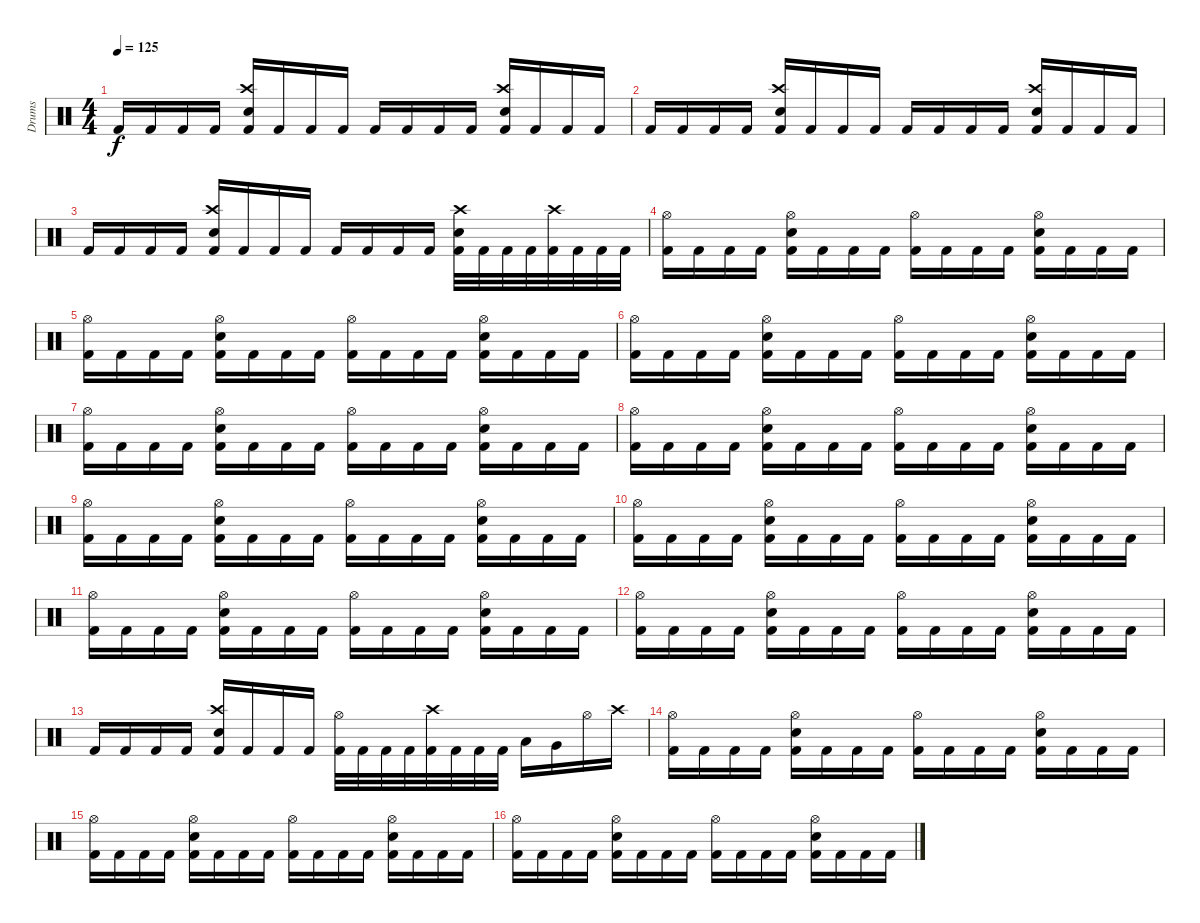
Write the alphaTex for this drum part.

\track ("Drums" "Drums") {instrument percussion}
\staff {score}
\articulation defaults
\ts (4 4)
\tempo 125
\clef neutral
\ks c "Kick (hit) 2".16{dy f} "Kick (hit) 2".16 "Kick (hit) 2".16 "Kick (hit) 2".16
("Crash high (hit)" "Kick (hit) 2" "Snare (hit) 2").16 "Kick (hit) 2".16 "Kick (hit) 2".16 "Kick (hit) 2".16 "Kick (hit) 2".16 "Kick (hit) 2".16 "Kick (hit) 2".16 "Kick (hit) 2".16 ("Crash high (hit)" "Kick (hit) 2" "Snare (hit) 2").16 "Kick (hit) 2".16 "Kick (hit) 2".16 "Kick (hit) 2".16 |
"Kick (hit) 2".16 "Kick (hit) 2".16 "Kick (hit) 2".16 "Kick (hit) 2".16 ("Crash high (hit)" "Kick (hit) 2" "Snare (hit) 2").16 "Kick (hit) 2".16 "Kick (hit) 2".16 "Kick (hit) 2".16 "Kick (hit) 2".16 "Kick (hit) 2".16 "Kick (hit) 2".16 "Kick (hit) 2".16 ("Crash high (hit)" "Kick (hit) 2" "Snare (hit) 2").16 "Kick (hit) 2".16 "Kick (hit) 2".16 "Kick (hit) 2".16 |
"Kick (hit) 2".16 "Kick (hit) 2".16 "Kick (hit) 2".16 "Kick (hit) 2".16 ("Crash high (hit)" "Kick (hit) 2" "Snare (hit) 2").16 "Kick (hit) 2".16 "Kick (hit) 2".16 "Kick (hit) 2".16 "Kick (hit) 2".16 "Kick (hit) 2".16 "Kick (hit) 2".16 "Kick (hit) 2".16 ("Crash high (hit)" "Kick (hit) 2" "Snare (hit) 2").32 "Kick (hit) 2".32 "Kick (hit) 2".32 "Kick (hit) 2".32 ("Crash high (hit)" "Kick (hit) 2").32 "Kick (hit) 2".32 "Kick (hit) 2".32 "Kick (hit) 2".32 |
("Hi-Hat (open)" "Kick (hit) 2").16 "Kick (hit) 2".16 "Kick (hit) 2".16 "Kick (hit) 2".16 ("Hi-Hat (open)" "Kick (hit) 2" "Snare (hit) 2").16 "Kick (hit) 2".16 "Kick (hit) 2".16 "Kick (hit) 2".16 ("Hi-Hat (open)" "Kick (hit) 2").16 "Kick (hit) 2".16 "Kick (hit) 2".16 "Kick (hit) 2".16 ("Hi-Hat (open)" "Kick (hit) 2" "Snare (hit) 2").16 "Kick (hit) 2".16 "Kick (hit) 2".16 "Kick (hit) 2".16 |
("Hi-Hat (open)" "Kick (hit) 2").16 "Kick (hit) 2".16 "Kick (hit) 2".16 "Kick (hit) 2".16 ("Hi-Hat (open)" "Kick (hit) 2" "Snare (hit) 2").16 "Kick (hit) 2".16 "Kick (hit) 2".16 "Kick (hit) 2".16 ("Hi-Hat (open)" "Kick (hit) 2").16 "Kick (hit) 2".16 "Kick (hit) 2".16 "Kick (hit) 2".16 ("Hi-Hat (open)" "Kick (hit) 2" "Snare (hit) 2").16 "Kick (hit) 2".16 "Kick (hit) 2".16 "Kick (hit) 2".16 |
("Hi-Hat (open)" "Kick (hit) 2").16 "Kick (hit) 2".16 "Kick (hit) 2".16 "Kick (hit) 2".16 ("Hi-Hat (open)" "Kick (hit) 2" "Snare (hit) 2").16 "Kick (hit) 2".16 "Kick (hit) 2".16 "Kick (hit) 2".16 ("Hi-Hat (open)" "Kick (hit) 2").16 "Kick (hit) 2".16 "Kick (hit) 2".16 "Kick (hit) 2".16 ("Hi-Hat (open)" "Kick (hit) 2" "Snare (hit) 2").16 "Kick (hit) 2".16 "Kick (hit) 2".16 "Kick (hit) 2".16 |
("Hi-Hat (open)" "Kick (hit) 2").16 "Kick (hit) 2".16 "Kick (hit) 2".16 "Kick (hit) 2".16 ("Hi-Hat (open)" "Kick (hit) 2" "Snare (hit) 2").16 "Kick (hit) 2".16 "Kick (hit) 2".16 "Kick (hit) 2".16 ("Hi-Hat (open)" "Kick (hit) 2").16 "Kick (hit) 2".16 "Kick (hit) 2".16 "Kick (hit) 2".16 ("Hi-Hat (open)" "Kick (hit) 2" "Snare (hit) 2").16 "Kick (hit) 2".16 "Kick (hit) 2".16 "Kick (hit) 2".16 |
("Hi-Hat (open)" "Kick (hit) 2").16 "Kick (hit) 2".16 "Kick (hit) 2".16 "Kick (hit) 2".16 ("Hi-Hat (open)" "Kick (hit) 2" "Snare (hit) 2").16 "Kick (hit) 2".16 "Kick (hit) 2".16 "Kick (hit) 2".16 ("Hi-Hat (open)" "Kick (hit) 2").16 "Kick (hit) 2".16 "Kick (hit) 2".16 "Kick (hit) 2".16 ("Hi-Hat (open)" "Kick (hit) 2" "Snare (hit) 2").16 "Kick (hit) 2".16 "Kick (hit) 2".16 "Kick (hit) 2".16 |
("Hi-Hat (open)" "Kick (hit) 2").16 "Kick (hit) 2".16 "Kick (hit) 2".16 "Kick (hit) 2".16 ("Hi-Hat (open)" "Kick (hit) 2" "Snare (hit) 2").16 "Kick (hit) 2".16 "Kick (hit) 2".16 "Kick (hit) 2".16 ("Hi-Hat (open)" "Kick (hit) 2").16 "Kick (hit) 2".16 "Kick (hit) 2".16 "Kick (hit) 2".16 ("Hi-Hat (open)" "Kick (hit) 2" "Snare (hit) 2").16 "Kick (hit) 2".16 "Kick (hit) 2".16 "Kick (hit) 2".16 |
("Hi-Hat (open)" "Kick (hit) 2").16 "Kick (hit) 2".16 "Kick (hit) 2".16 "Kick (hit) 2".16 ("Hi-Hat (open)" "Kick (hit) 2" "Snare (hit) 2").16 "Kick (hit) 2".16 "Kick (hit) 2".16 "Kick (hit) 2".16 ("Hi-Hat (open)" "Kick (hit) 2").16 "Kick (hit) 2".16 "Kick (hit) 2".16 "Kick (hit) 2".16 ("Hi-Hat (open)" "Kick (hit) 2" "Snare (hit) 2").16 "Kick (hit) 2".16 "Kick (hit) 2".16 "Kick (hit) 2".16 |
("Hi-Hat (open)" "Kick (hit) 2").16 "Kick (hit) 2".16 "Kick (hit) 2".16 "Kick (hit) 2".16 ("Hi-Hat (open)" "Kick (hit) 2" "Snare (hit) 2").16 "Kick (hit) 2".16 "Kick (hit) 2".16 "Kick (hit) 2".16 ("Hi-Hat (open)" "Kick (hit) 2").16 "Kick (hit) 2".16 "Kick (hit) 2".16 "Kick (hit) 2".16 ("Hi-Hat (open)" "Kick (hit) 2" "Snare (hit) 2").16 "Kick (hit) 2".16 "Kick (hit) 2".16 "Kick (hit) 2".16 |
("Hi-Hat (open)" "Kick (hit) 2").16 "Kick (hit) 2".16 "Kick (hit) 2".16 "Kick (hit) 2".16 ("Hi-Hat (open)" "Kick (hit) 2" "Snare (hit) 2").16 "Kick (hit) 2".16 "Kick (hit) 2".16 "Kick (hit) 2".16 ("Hi-Hat (open)" "Kick (hit) 2").16 "Kick (hit) 2".16 "Kick (hit) 2".16 "Kick (hit) 2".16 ("Hi-Hat (open)" "Kick (hit) 2" "Snare (hit) 2").16 "Kick (hit) 2".16 "Kick (hit) 2".16 "Kick (hit) 2".16 |
"Kick (hit) 2".16 "Kick (hit) 2".16 "Kick (hit) 2".16 "Kick (hit) 2".16 ("Crash high (hit)" "Kick (hit) 2" "Snare (hit) 2").16 "Kick (hit) 2".16 "Kick (hit) 2".16 "Kick (hit) 2".16 ("Hi-Hat (open)" "Kick (hit) 2").32 "Kick (hit) 2".32 "Kick (hit) 2".32 "Kick (hit) 2".32 ("Crash high (hit)" "Kick (hit) 2").32 "Kick (hit) 2".32 "Kick (hit) 2".32 "Kick (hit) 2".32 "Low Tom (hit)".16 "Very Low Tom (hit)".16 "Hi-Hat (open)".16 "Crash high (hit)".16 |
("Hi-Hat (open)" "Kick (hit) 2").16 "Kick (hit) 2".16 "Kick (hit) 2".16 "Kick (hit) 2".16 ("Hi-Hat (open)" "Kick (hit) 2" "Snare (hit) 2").16 "Kick (hit) 2".16 "Kick (hit) 2".16 "Kick (hit) 2".16 ("Hi-Hat (open)" "Kick (hit) 2").16 "Kick (hit) 2".16 "Kick (hit) 2".16 "Kick (hit) 2".16 ("Hi-Hat (open)" "Kick (hit) 2" "Snare (hit) 2").16 "Kick (hit) 2".16 "Kick (hit) 2".16 "Kick (hit) 2".16 |
("Hi-Hat (open)" "Kick (hit) 2").16 "Kick (hit) 2".16 "Kick (hit) 2".16 "Kick (hit) 2".16 ("Hi-Hat (open)" "Kick (hit) 2" "Snare (hit) 2").16 "Kick (hit) 2".16 "Kick (hit) 2".16 "Kick (hit) 2".16 ("Hi-Hat (open)" "Kick (hit) 2").16 "Kick (hit) 2".16 "Kick (hit) 2".16 "Kick (hit) 2".16 ("Hi-Hat (open)" "Kick (hit) 2" "Snare (hit) 2").16 "Kick (hit) 2".16 "Kick (hit) 2".16 "Kick (hit) 2".16 |
("Hi-Hat (open)" "Kick (hit) 2").16 "Kick (hit) 2".16 "Kick (hit) 2".16 "Kick (hit) 2".16 ("Hi-Hat (open)" "Kick (hit) 2" "Snare (hit) 2").16 "Kick (hit) 2".16 "Kick (hit) 2".16 "Kick (hit) 2".16 ("Hi-Hat (open)" "Kick (hit) 2").16 "Kick (hit) 2".16 "Kick (hit) 2".16 "Kick (hit) 2".16 ("Hi-Hat (open)" "Kick (hit) 2" "Snare (hit) 2").16 "Kick (hit) 2".16 "Kick (hit) 2".16 "Kick (hit) 2".16
